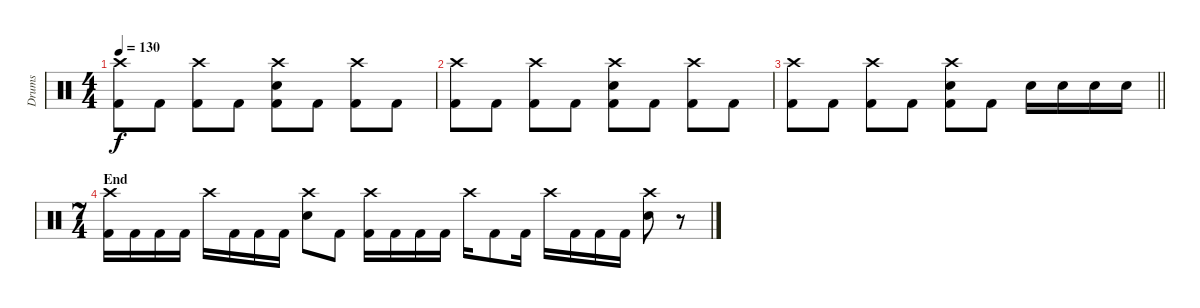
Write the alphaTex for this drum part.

\track ("Drums" "Drums") {instrument percussion}
\staff {score}
\articulation defaults
\ts (4 4)
\tempo 130
\clef neutral
\ks c
("Crash high (hit)" "Kick (hit) 2").8{dy f} "Kick (hit) 2".8 ("Crash high (hit)" "Kick (hit) 2").8 "Kick (hit) 2".8 ("Crash high (hit)" "Electric Snare (hit)" "Kick (hit) 2").8 "Kick (hit) 2".8 ("Crash high (hit)" "Kick (hit) 2").8 "Kick (hit) 2".8 |
("Crash high (hit)" "Kick (hit) 2").8 "Kick (hit) 2".8 ("Crash high (hit)" "Kick (hit) 2").8 "Kick (hit) 2".8 ("Crash high (hit)" "Electric Snare (hit)" "Kick (hit) 2").8 "Kick (hit) 2".8 ("Crash high (hit)" "Kick (hit) 2").8 "Kick (hit) 2".8 |
\barLineRight lightlight
("Crash high (hit)" "Kick (hit) 2").8 "Kick (hit) 2".8 ("Crash high (hit)" "Kick (hit) 2").8 "Kick (hit) 2".8 ("Crash high (hit)" "Electric Snare (hit)" "Kick (hit) 2").8 "Kick (hit) 2".8 "Electric Snare (hit)".16 "Electric Snare (hit)".16 "Electric Snare (hit)".16 "Electric Snare (hit)".16 |
\ts (7 4)
\section ("" "End")
("Crash high (hit)" "Kick (hit) 2").16 "Kick (hit) 2".16 "Kick (hit) 2".16 "Kick (hit) 2".16 "Crash high (hit)".16 "Kick (hit) 2".16 "Kick (hit) 2".16 "Kick (hit) 2".16 ("Crash high (hit)" "Electric Snare (hit)").8 "Kick (hit) 2".8 ("Crash high (hit)" "Kick (hit) 2").16 "Kick (hit) 2".16 "Kick (hit) 2".16 "Kick (hit) 2".16 "Crash high (hit)".16 "Kick (hit) 2".8 "Kick (hit) 2".16 "Crash high (hit)".16 "Kick (hit) 2".16 "Kick (hit) 2".16 "Kick (hit) 2".16 ("Crash high (hit)" "Electric Snare (hit)").8 r.8
